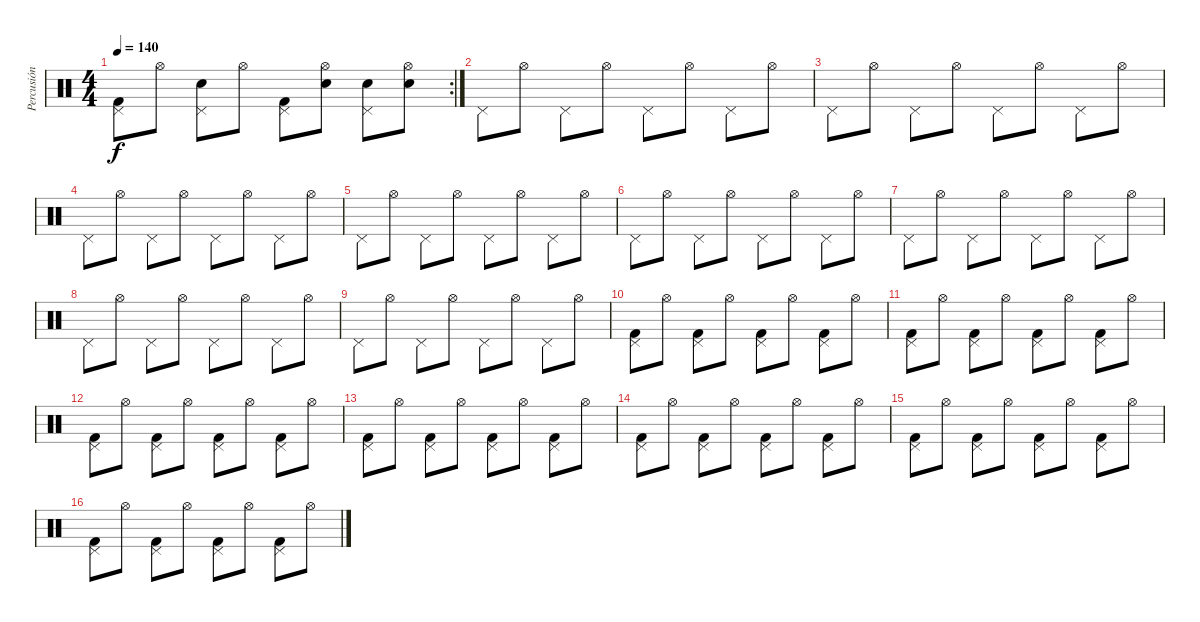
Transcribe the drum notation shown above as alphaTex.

\track ("Percusión" "Percusión") {instrument percussion}
\staff {score}
\articulation defaults
\rc 2
\ts (4 4)
\tempo 140
\clef neutral
\ks c
("Pedal Hi-Hat (hit)" "Kick (hit) 2").8{dy f} "Hi-Hat (open)".8 ("Pedal Hi-Hat (hit)" "Electric Snare (hit)").8 "Hi-Hat (open)".8 ("Pedal Hi-Hat (hit)" "Kick (hit) 2").8 ("Hi-Hat (open)" "Electric Snare (hit)").8 ("Pedal Hi-Hat (hit)" "Electric Snare (hit)").8 ("Hi-Hat (open)" "Electric Snare (hit)").8 |
"Pedal Hi-Hat (hit)".8 "Hi-Hat (open)".8 "Pedal Hi-Hat (hit)".8 "Hi-Hat (open)".8 "Pedal Hi-Hat (hit)".8 "Hi-Hat (open)".8 "Pedal Hi-Hat (hit)".8 "Hi-Hat (open)".8 |
"Pedal Hi-Hat (hit)".8 "Hi-Hat (open)".8 "Pedal Hi-Hat (hit)".8 "Hi-Hat (open)".8 "Pedal Hi-Hat (hit)".8 "Hi-Hat (open)".8 "Pedal Hi-Hat (hit)".8 "Hi-Hat (open)".8 |
"Pedal Hi-Hat (hit)".8 "Hi-Hat (open)".8 "Pedal Hi-Hat (hit)".8 "Hi-Hat (open)".8 "Pedal Hi-Hat (hit)".8 "Hi-Hat (open)".8 "Pedal Hi-Hat (hit)".8 "Hi-Hat (open)".8 |
"Pedal Hi-Hat (hit)".8 "Hi-Hat (open)".8 "Pedal Hi-Hat (hit)".8 "Hi-Hat (open)".8 "Pedal Hi-Hat (hit)".8 "Hi-Hat (open)".8 "Pedal Hi-Hat (hit)".8 "Hi-Hat (open)".8 |
"Pedal Hi-Hat (hit)".8 "Hi-Hat (open)".8 "Pedal Hi-Hat (hit)".8 "Hi-Hat (open)".8 "Pedal Hi-Hat (hit)".8 "Hi-Hat (open)".8 "Pedal Hi-Hat (hit)".8 "Hi-Hat (open)".8 |
"Pedal Hi-Hat (hit)".8 "Hi-Hat (open)".8 "Pedal Hi-Hat (hit)".8 "Hi-Hat (open)".8 "Pedal Hi-Hat (hit)".8 "Hi-Hat (open)".8 "Pedal Hi-Hat (hit)".8 "Hi-Hat (open)".8 |
"Pedal Hi-Hat (hit)".8 "Hi-Hat (open)".8 "Pedal Hi-Hat (hit)".8 "Hi-Hat (open)".8 "Pedal Hi-Hat (hit)".8 "Hi-Hat (open)".8 "Pedal Hi-Hat (hit)".8 "Hi-Hat (open)".8 |
"Pedal Hi-Hat (hit)".8 "Hi-Hat (open)".8 "Pedal Hi-Hat (hit)".8 "Hi-Hat (open)".8 "Pedal Hi-Hat (hit)".8 "Hi-Hat (open)".8 "Pedal Hi-Hat (hit)".8 "Hi-Hat (open)".8 |
("Pedal Hi-Hat (hit)" "Kick (hit) 2").8 "Hi-Hat (open)".8 ("Pedal Hi-Hat (hit)" "Kick (hit) 2").8 "Hi-Hat (open)".8 ("Pedal Hi-Hat (hit)" "Kick (hit) 2").8 "Hi-Hat (open)".8 ("Pedal Hi-Hat (hit)" "Kick (hit) 2").8 "Hi-Hat (open)".8 |
("Pedal Hi-Hat (hit)" "Kick (hit) 2").8 "Hi-Hat (open)".8 ("Pedal Hi-Hat (hit)" "Kick (hit) 2").8 "Hi-Hat (open)".8 ("Pedal Hi-Hat (hit)" "Kick (hit) 2").8 "Hi-Hat (open)".8 ("Pedal Hi-Hat (hit)" "Kick (hit) 2").8 "Hi-Hat (open)".8 |
("Pedal Hi-Hat (hit)" "Kick (hit) 2").8 "Hi-Hat (open)".8 ("Pedal Hi-Hat (hit)" "Kick (hit) 2").8 "Hi-Hat (open)".8 ("Pedal Hi-Hat (hit)" "Kick (hit) 2").8 "Hi-Hat (open)".8 ("Pedal Hi-Hat (hit)" "Kick (hit) 2").8 "Hi-Hat (open)".8 |
("Pedal Hi-Hat (hit)" "Kick (hit) 2").8 "Hi-Hat (open)".8 ("Pedal Hi-Hat (hit)" "Kick (hit) 2").8 "Hi-Hat (open)".8 ("Pedal Hi-Hat (hit)" "Kick (hit) 2").8 "Hi-Hat (open)".8 ("Pedal Hi-Hat (hit)" "Kick (hit) 2").8 "Hi-Hat (open)".8 |
("Pedal Hi-Hat (hit)" "Kick (hit) 2").8 "Hi-Hat (open)".8 ("Pedal Hi-Hat (hit)" "Kick (hit) 2").8 "Hi-Hat (open)".8 ("Pedal Hi-Hat (hit)" "Kick (hit) 2").8 "Hi-Hat (open)".8 ("Pedal Hi-Hat (hit)" "Kick (hit) 2").8 "Hi-Hat (open)".8 |
("Pedal Hi-Hat (hit)" "Kick (hit) 2").8 "Hi-Hat (open)".8 ("Pedal Hi-Hat (hit)" "Kick (hit) 2").8 "Hi-Hat (open)".8 ("Pedal Hi-Hat (hit)" "Kick (hit) 2").8 "Hi-Hat (open)".8 ("Pedal Hi-Hat (hit)" "Kick (hit) 2").8 "Hi-Hat (open)".8 |
("Pedal Hi-Hat (hit)" "Kick (hit) 2").8 "Hi-Hat (open)".8 ("Pedal Hi-Hat (hit)" "Kick (hit) 2").8 "Hi-Hat (open)".8 ("Pedal Hi-Hat (hit)" "Kick (hit) 2").8 "Hi-Hat (open)".8 ("Pedal Hi-Hat (hit)" "Kick (hit) 2").8 "Hi-Hat (open)".8
